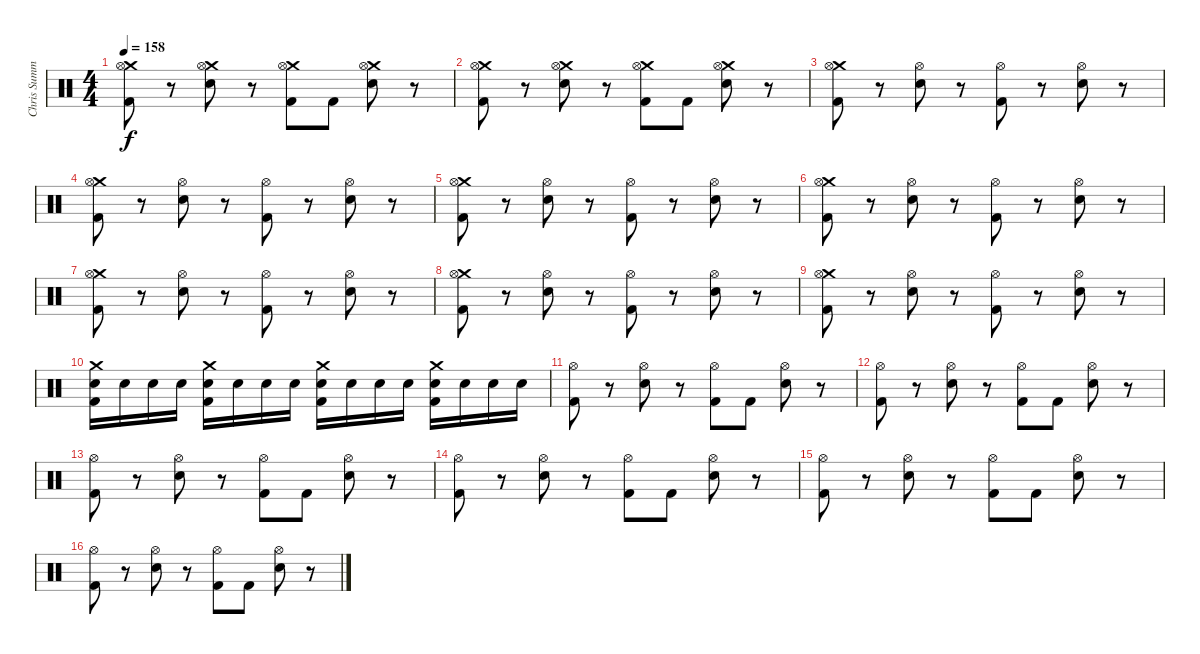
\track ("Chris Summers" "Chris Summ") {instrument percussion}
\staff {score}
\articulation defaults
\ts (4 4)
\tempo 158
\clef neutral
\ks c
("Crash medium (hit)" "Hi-Hat (open)" "Kick (hit) 2").8{dy f} r.8 ("Crash medium (hit)" "Hi-Hat (open)" "Electric Snare (hit)").8 r.8 ("Crash medium (hit)" "Hi-Hat (open)" "Kick (hit) 2").8 "Kick (hit) 2".8 ("Crash medium (hit)" "Hi-Hat (open)" "Electric Snare (hit)").8 r.8 |
("Crash medium (hit)" "Hi-Hat (open)" "Kick (hit) 2").8 r.8 ("Crash medium (hit)" "Hi-Hat (open)" "Electric Snare (hit)").8 r.8 ("Crash medium (hit)" "Hi-Hat (open)" "Kick (hit) 2").8 "Kick (hit) 2".8 ("Crash medium (hit)" "Hi-Hat (open)" "Electric Snare (hit)").8 r.8 |
("Crash medium (hit)" "Hi-Hat (open)" "Kick (hit) 2").8 r.8 ("Hi-Hat (open)" "Electric Snare (hit)").8 r.8 ("Hi-Hat (open)" "Kick (hit) 2").8 r.8 ("Hi-Hat (open)" "Electric Snare (hit)").8 r.8 |
("Crash medium (hit)" "Hi-Hat (open)" "Kick (hit) 2").8 r.8 ("Hi-Hat (open)" "Electric Snare (hit)").8 r.8 ("Hi-Hat (open)" "Kick (hit) 2").8 r.8 ("Hi-Hat (open)" "Electric Snare (hit)").8 r.8 |
("Crash medium (hit)" "Hi-Hat (open)" "Kick (hit) 2").8 r.8 ("Hi-Hat (open)" "Electric Snare (hit)").8 r.8 ("Hi-Hat (open)" "Kick (hit) 2").8 r.8 ("Hi-Hat (open)" "Electric Snare (hit)").8 r.8 |
("Crash medium (hit)" "Hi-Hat (open)" "Kick (hit) 2").8 r.8 ("Hi-Hat (open)" "Electric Snare (hit)").8 r.8 ("Hi-Hat (open)" "Kick (hit) 2").8 r.8 ("Hi-Hat (open)" "Electric Snare (hit)").8 r.8 |
("Crash medium (hit)" "Hi-Hat (open)" "Kick (hit) 2").8 r.8 ("Hi-Hat (open)" "Electric Snare (hit)").8 r.8 ("Hi-Hat (open)" "Kick (hit) 2").8 r.8 ("Hi-Hat (open)" "Electric Snare (hit)").8 r.8 |
("Crash medium (hit)" "Hi-Hat (open)" "Kick (hit) 2").8 r.8 ("Hi-Hat (open)" "Electric Snare (hit)").8 r.8 ("Hi-Hat (open)" "Kick (hit) 2").8 r.8 ("Hi-Hat (open)" "Electric Snare (hit)").8 r.8 |
("Crash medium (hit)" "Hi-Hat (open)" "Kick (hit) 2").8 r.8 ("Hi-Hat (open)" "Electric Snare (hit)").8 r.8 ("Hi-Hat (open)" "Kick (hit) 2").8 r.8 ("Hi-Hat (open)" "Electric Snare (hit)").8 r.8 |
("Crash medium (hit)" "Kick (hit) 2" "Electric Snare (hit)").16 "Electric Snare (hit)".16 "Electric Snare (hit)".16 "Electric Snare (hit)".16 ("Crash medium (hit)" "Kick (hit) 2" "Electric Snare (hit)").16 "Electric Snare (hit)".16 "Electric Snare (hit)".16 "Electric Snare (hit)".16 ("Crash medium (hit)" "Kick (hit) 2" "Electric Snare (hit)").16 "Electric Snare (hit)".16 "Electric Snare (hit)".16 "Electric Snare (hit)".16 ("Crash medium (hit)" "Kick (hit) 2" "Electric Snare (hit)").16 "Electric Snare (hit)".16 "Electric Snare (hit)".16 "Electric Snare (hit)".16 |
("Hi-Hat (open)" "Kick (hit) 2").8 r.8 ("Hi-Hat (open)" "Electric Snare (hit)").8 r.8 ("Hi-Hat (open)" "Kick (hit) 2").8 "Kick (hit) 2".8 ("Hi-Hat (open)" "Electric Snare (hit)").8 r.8 |
("Hi-Hat (open)" "Kick (hit) 2").8 r.8 ("Hi-Hat (open)" "Electric Snare (hit)").8 r.8 ("Hi-Hat (open)" "Kick (hit) 2").8 "Kick (hit) 2".8 ("Hi-Hat (open)" "Electric Snare (hit)").8 r.8 |
("Hi-Hat (open)" "Kick (hit) 2").8 r.8 ("Hi-Hat (open)" "Electric Snare (hit)").8 r.8 ("Hi-Hat (open)" "Kick (hit) 2").8 "Kick (hit) 2".8 ("Hi-Hat (open)" "Electric Snare (hit)").8 r.8 |
("Hi-Hat (open)" "Kick (hit) 2").8 r.8 ("Hi-Hat (open)" "Electric Snare (hit)").8 r.8 ("Hi-Hat (open)" "Kick (hit) 2").8 "Kick (hit) 2".8 ("Hi-Hat (open)" "Electric Snare (hit)").8 r.8 |
("Hi-Hat (open)" "Kick (hit) 2").8 r.8 ("Hi-Hat (open)" "Electric Snare (hit)").8 r.8 ("Hi-Hat (open)" "Kick (hit) 2").8 "Kick (hit) 2".8 ("Hi-Hat (open)" "Electric Snare (hit)").8 r.8 |
("Hi-Hat (open)" "Kick (hit) 2").8 r.8 ("Hi-Hat (open)" "Electric Snare (hit)").8 r.8 ("Hi-Hat (open)" "Kick (hit) 2").8 "Kick (hit) 2".8 ("Hi-Hat (open)" "Electric Snare (hit)").8 r.8
